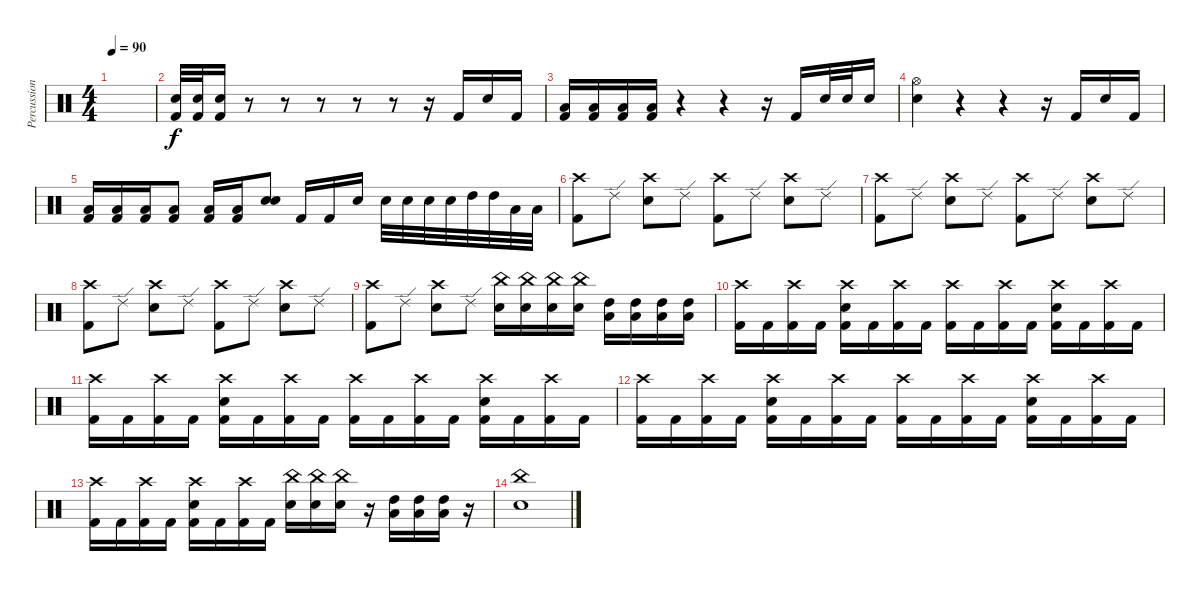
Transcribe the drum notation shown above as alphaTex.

\track ("Percussion" "Percussion") {instrument percussion}
\staff {score}
\articulation defaults
\ts (4 4)
\tempo 90
\clef neutral
\ks c
|
("Electric Snare (hit)" "Kick (hit) 2").32 ("Electric Snare (hit)" "Kick (hit) 2").32 ("Electric Snare (hit)" "Kick (hit) 2").16 r.8 r.8 r.8 r.8 r.8 r.16 "Kick (hit) 2".16 "Electric Snare (hit)".16 "Kick (hit) 2".16 |
("Kick (hit) 2" "Low Tom (hit)").16 ("Kick (hit) 2" "Low Tom (hit)").16 ("Kick (hit) 2" "Low Tom (hit)").16 ("Kick (hit) 2" "Low Tom (hit)").16 r.4 r.4 r.16 "Kick (hit) 2".16 "Electric Snare (hit)".32 "Electric Snare (hit)".32 "Electric Snare (hit)".16 |
("Hi-Hat (open)" "Electric Snare (hit)").4 r.4 r.4 r.16 "Kick (hit) 2".16 "Electric Snare (hit)".16 "Kick (hit) 2".16 |
("Kick (hit) 2" "Low Tom (hit)").16 ("Kick (hit) 2" "Low Tom (hit)").16 ("Kick (hit) 2" "Low Tom (hit)").16 ("Kick (hit) 2" "Low Tom (hit)").8 ("Kick (hit) 2" "Low Tom (hit)").16 ("Kick (hit) 2" "Low Tom (hit)").16 ("Electric Snare (hit)" "Electric Snare (hit)").8{bu 480} "Kick (hit) 2".16 "Kick (hit) 2".16 "Electric Snare (hit)".16 "Electric Snare (hit)".32 "Electric Snare (hit)".32 "Electric Snare (hit)".32 "Electric Snare (hit)".32 "High Tom (hit)".32 "High Tom (hit)".32 "Low Tom (hit)".32 "Low Tom (hit)".32 |
("Crash high (hit)" "Kick (hit) 2").8 "Ride (edge) 2".8 ("Crash high (hit)" "Electric Snare (hit)").8 "Ride (edge) 2".8 ("Crash high (hit)" "Kick (hit) 2").8 "Ride (edge) 2".8 ("Crash high (hit)" "Electric Snare (hit)").8 "Ride (edge) 2".8 |
("Crash high (hit)" "Kick (hit) 2").8 "Ride (edge) 2".8 ("Crash high (hit)" "Electric Snare (hit)").8 "Ride (edge) 2".8 ("Crash high (hit)" "Kick (hit) 2").8 "Ride (edge) 2".8 ("Crash high (hit)" "Electric Snare (hit)").8 "Ride (edge) 2".8 |
("Crash high (hit)" "Kick (hit) 2").8 "Ride (edge) 2".8 ("Crash high (hit)" "Electric Snare (hit)").8 "Ride (edge) 2".8 ("Crash high (hit)" "Kick (hit) 2").8 "Ride (edge) 2".8 ("Crash high (hit)" "Electric Snare (hit)").8 "Ride (edge) 2".8 |
("Crash high (hit)" "Kick (hit) 2").8 "Ride (edge) 2".8 ("Crash high (hit)" "Electric Snare (hit)").8 "Ride (edge) 2".8 ("China (hit)" "Electric Snare (hit)").16 ("China (hit)" "Electric Snare (hit)").16 ("China (hit)" "Electric Snare (hit)").16 ("China (hit)" "Electric Snare (hit)").16 ("High Tom (hit)" "Low Tom (hit)").16 ("High Tom (hit)" "Low Tom (hit)").16 ("High Tom (hit)" "Low Tom (hit)").16 ("High Tom (hit)" "Low Tom (hit)").16 |
("Crash high (hit)" "Kick (hit) 2").16 "Kick (hit) 2".16 ("Crash high (hit)" "Kick (hit) 2").16 "Kick (hit) 2".16 ("Crash high (hit)" "Kick (hit) 2" "Electric Snare (hit)").16 "Kick (hit) 2".16 ("Crash high (hit)" "Kick (hit) 2").16 "Kick (hit) 2".16 ("Crash high (hit)" "Kick (hit) 2").16 "Kick (hit) 2".16 ("Crash high (hit)" "Kick (hit) 2").16 "Kick (hit) 2".16 ("Crash high (hit)" "Kick (hit) 2" "Electric Snare (hit)").16 "Kick (hit) 2".16 ("Crash high (hit)" "Kick (hit) 2").16 "Kick (hit) 2".16 |
("Crash high (hit)" "Kick (hit) 2").16 "Kick (hit) 2".16 ("Crash high (hit)" "Kick (hit) 2").16 "Kick (hit) 2".16 ("Crash high (hit)" "Kick (hit) 2" "Electric Snare (hit)").16 "Kick (hit) 2".16 ("Crash high (hit)" "Kick (hit) 2").16 "Kick (hit) 2".16 ("Crash high (hit)" "Kick (hit) 2").16 "Kick (hit) 2".16 ("Crash high (hit)" "Kick (hit) 2").16 "Kick (hit) 2".16 ("Crash high (hit)" "Kick (hit) 2" "Electric Snare (hit)").16 "Kick (hit) 2".16 ("Crash high (hit)" "Kick (hit) 2").16 "Kick (hit) 2".16 |
("Crash high (hit)" "Kick (hit) 2").16 "Kick (hit) 2".16 ("Crash high (hit)" "Kick (hit) 2").16 "Kick (hit) 2".16 ("Crash high (hit)" "Kick (hit) 2" "Electric Snare (hit)").16 "Kick (hit) 2".16 ("Crash high (hit)" "Kick (hit) 2").16 "Kick (hit) 2".16 ("Crash high (hit)" "Kick (hit) 2").16 "Kick (hit) 2".16 ("Crash high (hit)" "Kick (hit) 2").16 "Kick (hit) 2".16 ("Crash high (hit)" "Kick (hit) 2" "Electric Snare (hit)").16 "Kick (hit) 2".16 ("Crash high (hit)" "Kick (hit) 2").16 "Kick (hit) 2".16 |
("Crash high (hit)" "Kick (hit) 2").16 "Kick (hit) 2".16 ("Crash high (hit)" "Kick (hit) 2").16 "Kick (hit) 2".16 ("Crash high (hit)" "Electric Snare (hit)" "Kick (hit) 2").16 "Kick (hit) 2".16 ("Crash high (hit)" "Kick (hit) 2").16 "Kick (hit) 2".16 ("China (hit)" "Electric Snare (hit)").16 ("China (hit)" "Electric Snare (hit)").16 ("China (hit)" "Electric Snare (hit)").16 r.16 ("High Tom (hit)" "Low Tom (hit)").16 ("High Tom (hit)" "Low Tom (hit)").16 ("High Tom (hit)" "Low Tom (hit)").16 r.16 |
("Electric Snare (hit)" "China (hit)").1
